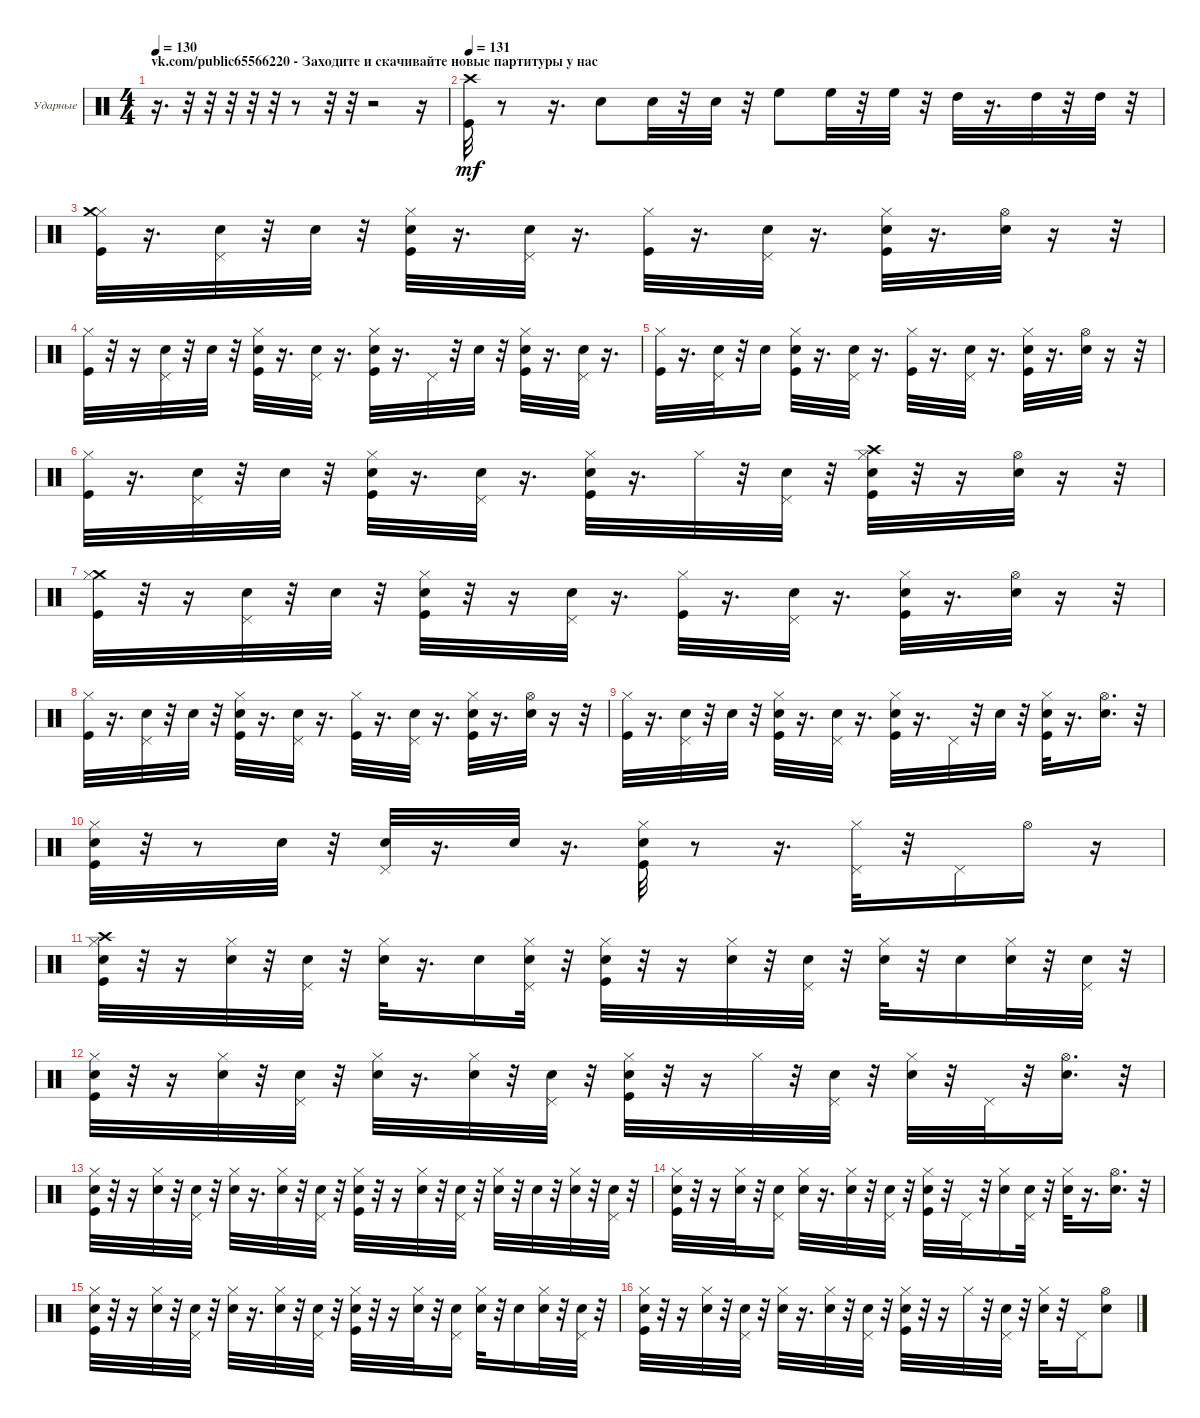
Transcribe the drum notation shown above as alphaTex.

\bracketExtendMode groupsimilarinstruments
\firstSystemTrackNameOrientation horizontal
\otherSystemsTrackNameOrientation horizontal
\track ("Ударные" "Ударные") {instrument percussion}
\staff {score}
\articulation defaults
\ts (4 4)
\section ("" "vk.com/public65566220 - Заходите и скачивайте новые партитуры у нас")
\tempo 130
\clef neutral
\ks c
r.16{d dy mf} r.32 r.32 r.32 r.32 r.32 r.8 r.32 r.32 r.2 r.16 |
\tempo 131
("Kick (hit)" "Crash high (hit)").32 r.8 r.16{d} "Snare (hit) 2".8 "Snare (hit) 2".32 r.32 "Snare (hit) 2".32 r.32 "High Floor Tom (hit)".8 "High Floor Tom (hit)".32 r.32 "High Floor Tom (hit)".32 r.32 "High Tom (hit)".32 r.16{d} "High Tom (hit)".32 r.32 "High Tom (hit)".32 r.32 |
("Kick (hit)" "Hi-Hat (closed)" "Crash medium (hit)").32 r.16{d} ("Snare (hit) 2" "Pedal Hi-Hat (hit)").32 r.32 "Snare (hit) 2".32 r.32 ("Hi-Hat (closed)" "Snare (hit) 2" "Kick (hit)").32 r.16{d} ("Snare (hit) 2" "Pedal Hi-Hat (hit)").32 r.16{d} ("Hi-Hat (closed)" "Kick (hit)").32 r.16{d} ("Snare (hit) 2" "Pedal Hi-Hat (hit)").32 r.16{d} ("Hi-Hat (closed)" "Snare (hit) 2" "Kick (hit)").32 r.16{d} ("Snare (hit) 2" "Hi-Hat (open)").32 r.16 r.32 |
("Hi-Hat (closed)" "Kick (hit)").32 r.32 r.16 ("Snare (hit) 2" "Pedal Hi-Hat (hit)").32 r.32 "Snare (hit) 2".32 r.32 ("Snare (hit) 2" "Hi-Hat (closed)" "Kick (hit)").32 r.16{d} ("Snare (hit) 2" "Pedal Hi-Hat (hit)").32 r.16{d} ("Snare (hit) 2" "Hi-Hat (closed)" "Kick (hit)").32 r.16{d} "Pedal Hi-Hat (hit)".32 r.32 "Snare (hit) 2".32 r.32 ("Snare (hit) 2" "Hi-Hat (closed)" "Kick (hit)").32 r.16{d} ("Snare (hit) 2" "Pedal Hi-Hat (hit)").32 r.16{d} |
("Hi-Hat (closed)" "Kick (hit)").32 r.16{d} ("Snare (hit) 2" "Pedal Hi-Hat (hit)").32 r.32 "Snare (hit) 2".16 ("Snare (hit) 2" "Hi-Hat (closed)" "Kick (hit)").32 r.16{d} ("Snare (hit) 2" "Pedal Hi-Hat (hit)").32 r.16{d} ("Kick (hit)" "Hi-Hat (closed)").32 r.16{d} ("Snare (hit) 2" "Pedal Hi-Hat (hit)").32 r.16{d} ("Hi-Hat (closed)" "Snare (hit) 2" "Kick (hit)").32 r.16{d} ("Snare (hit) 2" "Hi-Hat (open)").32 r.16 r.32 |
("Hi-Hat (closed)" "Kick (hit)").32 r.16{d} ("Snare (hit) 2" "Pedal Hi-Hat (hit)").32 r.32 "Snare (hit) 2".32 r.32 ("Snare (hit) 2" "Hi-Hat (closed)" "Kick (hit)").32 r.16{d} ("Snare (hit) 2" "Pedal Hi-Hat (hit)").32 r.16{d} ("Snare (hit) 2" "Hi-Hat (closed)" "Kick (hit)").32 r.16{d} "Hi-Hat (closed)".32 r.32 ("Snare (hit) 2" "Pedal Hi-Hat (hit)").32 r.32 ("Crash high (hit)" "Hi-Hat (closed)" "Snare (hit) 2" "Kick (hit)").32 r.32 r.16 ("Snare (hit) 2" "Hi-Hat (open)").32 r.16 r.32 |
("Crash medium (hit)" "Hi-Hat (closed)" "Kick (hit)").32 r.32 r.16 ("Snare (hit) 2" "Pedal Hi-Hat (hit)").32 r.32 "Snare (hit) 2".32 r.32 ("Snare (hit) 2" "Hi-Hat (closed)" "Kick (hit)").32 r.32 r.16 ("Snare (hit) 2" "Pedal Hi-Hat (hit)").32 r.16{d} ("Hi-Hat (closed)" "Kick (hit)").32 r.16{d} ("Snare (hit) 2" "Pedal Hi-Hat (hit)").32 r.16{d} ("Hi-Hat (closed)" "Snare (hit) 2" "Kick (hit)").32 r.16{d} ("Snare (hit) 2" "Hi-Hat (open)").32 r.16 r.32 |
("Hi-Hat (closed)" "Kick (hit)").32 r.16{d} ("Snare (hit) 2" "Pedal Hi-Hat (hit)").32 r.32 "Snare (hit) 2".32 r.32 ("Snare (hit) 2" "Hi-Hat (closed)" "Kick (hit)").32 r.16{d} ("Snare (hit) 2" "Pedal Hi-Hat (hit)").32 r.16{d} ("Hi-Hat (closed)" "Kick (hit)").32 r.16{d} ("Snare (hit) 2" "Pedal Hi-Hat (hit)").32 r.16{d} ("Hi-Hat (closed)" "Snare (hit) 2" "Kick (hit)").32 r.16{d} ("Snare (hit) 2" "Hi-Hat (open)").32 r.16 r.32 |
("Hi-Hat (closed)" "Kick (hit)").32 r.16{d} ("Snare (hit) 2" "Pedal Hi-Hat (hit)").32 r.32 "Snare (hit) 2".32 r.32 ("Snare (hit) 2" "Hi-Hat (closed)" "Kick (hit)").32 r.16{d} ("Snare (hit) 2" "Pedal Hi-Hat (hit)").32 r.16{d} ("Snare (hit) 2" "Hi-Hat (closed)" "Kick (hit)").32 r.16{d} "Pedal Hi-Hat (hit)".32 r.32 "Snare (hit) 2".32 r.32 ("Snare (hit) 2" "Kick (hit)" "Hi-Hat (closed)").32 r.16{d} ("Snare (hit) 2" "Hi-Hat (open)").16{d} r.32 |
("Snare (hit) 2" "Hi-Hat (closed)" "Kick (hit)").32 r.32 r.8 "Snare (hit) 2".32 r.32 ("Snare (hit) 2" "Pedal Hi-Hat (hit)").32 r.16{d} "Snare (hit) 2".32 r.16{d} ("Snare (hit) 2" "Kick (hit)" "Hi-Hat (closed)").32 r.8 r.16{d} ("Pedal Hi-Hat (hit)" "Hi-Hat (closed)").32 r.32 "Pedal Hi-Hat (hit)".16 "Hi-Hat (open)".16 r.16 |
("Snare (hit) 2" "Crash high (hit)" "Kick (hit)" "Hi-Hat (closed)").32 r.32 r.16 ("Snare (hit) 2" "Hi-Hat (closed)").32 r.32 ("Snare (hit) 2" "Pedal Hi-Hat (hit)").32 r.32 ("Snare (hit) 2" "Hi-Hat (closed)").32 r.16{d} "Snare (hit) 2".16 ("Snare (hit) 2" "Hi-Hat (closed)" "Pedal Hi-Hat (hit)").32 r.32 ("Snare (hit) 2" "Kick (hit)" "Hi-Hat (closed)").32 r.32 r.16 ("Snare (hit) 2" "Hi-Hat (closed)").32 r.32 ("Snare (hit) 2" "Pedal Hi-Hat (hit)").32 r.32 ("Snare (hit) 2" "Hi-Hat (closed)").32 r.32 "Snare (hit) 2".16 ("Snare (hit) 2" "Hi-Hat (closed)").32 r.32 ("Snare (hit) 2" "Pedal Hi-Hat (hit)").32 r.32 |
("Snare (hit) 2" "Kick (hit)" "Hi-Hat (closed)").32 r.32 r.16 ("Snare (hit) 2" "Hi-Hat (closed)").32 r.32 ("Snare (hit) 2" "Pedal Hi-Hat (hit)").32 r.32 ("Snare (hit) 2" "Hi-Hat (closed)").32 r.16{d} ("Snare (hit) 2" "Hi-Hat (closed)").32 r.32 ("Snare (hit) 2" "Pedal Hi-Hat (hit)").32 r.32 ("Snare (hit) 2" "Kick (hit)" "Hi-Hat (closed)").32 r.32 r.16 "Hi-Hat (closed)".32 r.32 ("Snare (hit) 2" "Pedal Hi-Hat (hit)").32 r.32 ("Snare (hit) 2" "Hi-Hat (closed)").32 r.32 "Pedal Hi-Hat (hit)".32 r.32 ("Snare (hit) 2" "Hi-Hat (open)").16{d} r.32 |
("Snare (hit) 2" "Hi-Hat (closed)" "Kick (hit)").32 r.32 r.16 ("Snare (hit) 2" "Hi-Hat (closed)").32 r.32 ("Snare (hit) 2" "Pedal Hi-Hat (hit)").32 r.32 ("Snare (hit) 2" "Hi-Hat (closed)").32 r.16{d} ("Snare (hit) 2" "Hi-Hat (closed)").32 r.32 ("Snare (hit) 2" "Pedal Hi-Hat (hit)").32 r.32 ("Snare (hit) 2" "Kick (hit)" "Hi-Hat (closed)").32 r.32 r.16 ("Snare (hit) 2" "Hi-Hat (closed)").32 r.32 ("Snare (hit) 2" "Pedal Hi-Hat (hit)").32 r.32 ("Snare (hit) 2" "Hi-Hat (closed)").32 r.32 "Snare (hit) 2".32 r.32 ("Snare (hit) 2" "Hi-Hat (closed)").32 r.32 ("Snare (hit) 2" "Pedal Hi-Hat (hit)").32 r.32 |
("Snare (hit) 2" "Kick (hit)" "Hi-Hat (closed)").32 r.32 r.16 ("Snare (hit) 2" "Hi-Hat (closed)").32 r.32 ("Snare (hit) 2" "Pedal Hi-Hat (hit)").16 ("Snare (hit) 2" "Hi-Hat (closed)").32 r.16{d} ("Snare (hit) 2" "Hi-Hat (closed)").32 r.32 ("Snare (hit) 2" "Pedal Hi-Hat (hit)").32 r.32 ("Snare (hit) 2" "Hi-Hat (closed)" "Kick (hit)").32 r.32 "Pedal Hi-Hat (hit)".32 r.32 ("Snare (hit) 2" "Hi-Hat (closed)").16 ("Snare (hit) 2" "Pedal Hi-Hat (hit)").32 r.32 ("Snare (hit) 2" "Hi-Hat (closed)").32 r.16{d} ("Snare (hit) 2" "Hi-Hat (open)").16{d} r.32 |
("Snare (hit) 2" "Hi-Hat (closed)" "Kick (hit)").32 r.32 r.16 ("Snare (hit) 2" "Hi-Hat (closed)").32 r.32 ("Snare (hit) 2" "Pedal Hi-Hat (hit)").32 r.32 ("Snare (hit) 2" "Hi-Hat (closed)").32 r.16{d} ("Snare (hit) 2" "Hi-Hat (closed)").32 r.32 ("Snare (hit) 2" "Pedal Hi-Hat (hit)").32 r.32 ("Snare (hit) 2" "Hi-Hat (closed)" "Kick (hit)").32 r.32 r.16 ("Snare (hit) 2" "Hi-Hat (closed)").32 r.32 ("Snare (hit) 2" "Pedal Hi-Hat (hit)").16 ("Snare (hit) 2" "Hi-Hat (closed)").32 r.32 "Snare (hit) 2".16 ("Snare (hit) 2" "Hi-Hat (closed)").32 r.32 ("Snare (hit) 2" "Pedal Hi-Hat (hit)").32 r.32 |
("Snare (hit) 2" "Hi-Hat (closed)" "Kick (hit)").32 r.32 r.16 ("Snare (hit) 2" "Hi-Hat (closed)").32 r.32 ("Snare (hit) 2" "Pedal Hi-Hat (hit)").32 r.32 ("Snare (hit) 2" "Hi-Hat (closed)").32 r.16{d} ("Snare (hit) 2" "Hi-Hat (closed)").32 r.32 ("Snare (hit) 2" "Pedal Hi-Hat (hit)").32 r.32 ("Snare (hit) 2" "Hi-Hat (closed)" "Kick (hit)").32 r.32 r.16 "Hi-Hat (closed)".32 r.32 ("Snare (hit) 2" "Pedal Hi-Hat (hit)").32 r.32 ("Snare (hit) 2" "Hi-Hat (closed)").32 r.32 "Pedal Hi-Hat (hit)".16 ("Snare (hit) 2" "Hi-Hat (open)").8
